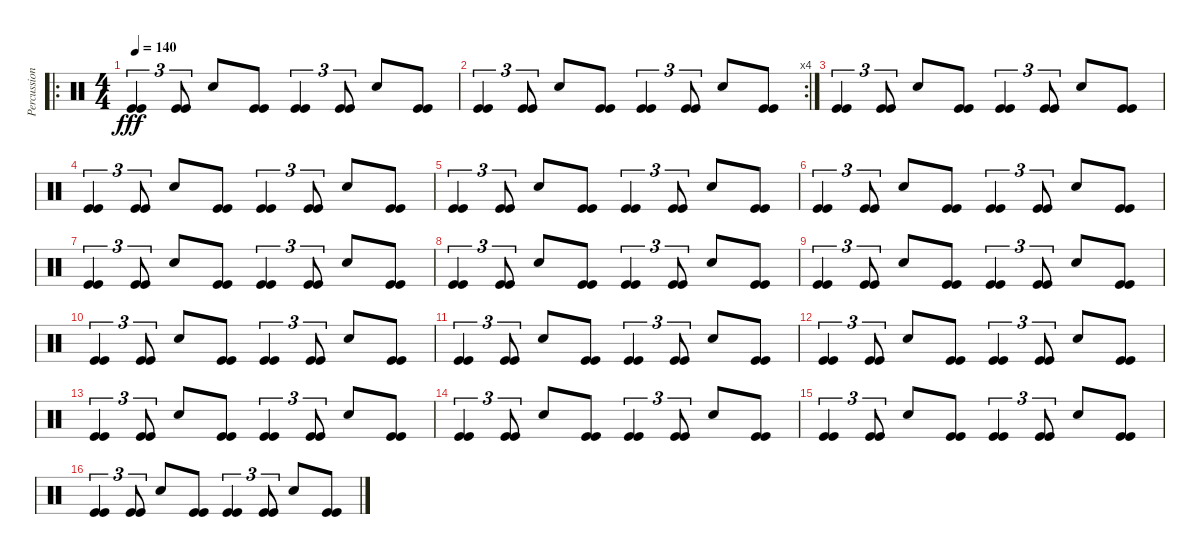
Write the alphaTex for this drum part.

\track ("Percussions" "Percussion") {instrument percussion}
\staff {score}
\articulation defaults
\ro
\ts (4 4)
\tempo 140
\clef neutral
\ks c
("Kick (hit)" "Kick (hit)").4{tu (3 2) dy fff} ("Kick (hit)" "Kick (hit)").8{tu (3 2)} "Snare (hit) 2".8 ("Kick (hit)" "Kick (hit)").8 ("Kick (hit)" "Kick (hit)").4{tu (3 2)} ("Kick (hit)" "Kick (hit)").8{tu (3 2)} "Snare (hit) 2".8 ("Kick (hit)" "Kick (hit)").8 |
\rc 4
("Kick (hit)" "Kick (hit)").4{tu (3 2)} ("Kick (hit)" "Kick (hit)").8{tu (3 2)} "Snare (hit) 2".8 ("Kick (hit)" "Kick (hit)").8 ("Kick (hit)" "Kick (hit)").4{tu (3 2)} ("Kick (hit)" "Kick (hit)").8{tu (3 2)} "Snare (hit) 2".8 ("Kick (hit)" "Kick (hit)").8 |
("Kick (hit)" "Kick (hit)").4{tu (3 2)} ("Kick (hit)" "Kick (hit)").8{tu (3 2)} "Snare (hit) 2".8 ("Kick (hit)" "Kick (hit)").8 ("Kick (hit)" "Kick (hit)").4{tu (3 2)} ("Kick (hit)" "Kick (hit)").8{tu (3 2)} "Snare (hit) 2".8 ("Kick (hit)" "Kick (hit)").8 |
("Kick (hit)" "Kick (hit)").4{tu (3 2)} ("Kick (hit)" "Kick (hit)").8{tu (3 2)} "Snare (hit) 2".8 ("Kick (hit)" "Kick (hit)").8 ("Kick (hit)" "Kick (hit)").4{tu (3 2)} ("Kick (hit)" "Kick (hit)").8{tu (3 2)} "Snare (hit) 2".8 ("Kick (hit)" "Kick (hit)").8 |
("Kick (hit)" "Kick (hit)").4{tu (3 2)} ("Kick (hit)" "Kick (hit)").8{tu (3 2)} "Snare (hit) 2".8 ("Kick (hit)" "Kick (hit)").8 ("Kick (hit)" "Kick (hit)").4{tu (3 2)} ("Kick (hit)" "Kick (hit)").8{tu (3 2)} "Snare (hit) 2".8 ("Kick (hit)" "Kick (hit)").8 |
("Kick (hit)" "Kick (hit)").4{tu (3 2)} ("Kick (hit)" "Kick (hit)").8{tu (3 2)} "Snare (hit) 2".8 ("Kick (hit)" "Kick (hit)").8 ("Kick (hit)" "Kick (hit)").4{tu (3 2)} ("Kick (hit)" "Kick (hit)").8{tu (3 2)} "Snare (hit) 2".8 ("Kick (hit)" "Kick (hit)").8 |
("Kick (hit)" "Kick (hit)").4{tu (3 2)} ("Kick (hit)" "Kick (hit)").8{tu (3 2)} "Snare (hit) 2".8 ("Kick (hit)" "Kick (hit)").8 ("Kick (hit)" "Kick (hit)").4{tu (3 2)} ("Kick (hit)" "Kick (hit)").8{tu (3 2)} "Snare (hit) 2".8 ("Kick (hit)" "Kick (hit)").8 |
("Kick (hit)" "Kick (hit)").4{tu (3 2)} ("Kick (hit)" "Kick (hit)").8{tu (3 2)} "Snare (hit) 2".8 ("Kick (hit)" "Kick (hit)").8 ("Kick (hit)" "Kick (hit)").4{tu (3 2)} ("Kick (hit)" "Kick (hit)").8{tu (3 2)} "Snare (hit) 2".8 ("Kick (hit)" "Kick (hit)").8 |
("Kick (hit)" "Kick (hit)").4{tu (3 2)} ("Kick (hit)" "Kick (hit)").8{tu (3 2)} "Snare (hit) 2".8 ("Kick (hit)" "Kick (hit)").8 ("Kick (hit)" "Kick (hit)").4{tu (3 2)} ("Kick (hit)" "Kick (hit)").8{tu (3 2)} "Snare (hit) 2".8 ("Kick (hit)" "Kick (hit)").8 |
("Kick (hit)" "Kick (hit)").4{tu (3 2)} ("Kick (hit)" "Kick (hit)").8{tu (3 2)} "Snare (hit) 2".8 ("Kick (hit)" "Kick (hit)").8 ("Kick (hit)" "Kick (hit)").4{tu (3 2)} ("Kick (hit)" "Kick (hit)").8{tu (3 2)} "Snare (hit) 2".8 ("Kick (hit)" "Kick (hit)").8 |
("Kick (hit)" "Kick (hit)").4{tu (3 2)} ("Kick (hit)" "Kick (hit)").8{tu (3 2)} "Snare (hit) 2".8 ("Kick (hit)" "Kick (hit)").8 ("Kick (hit)" "Kick (hit)").4{tu (3 2)} ("Kick (hit)" "Kick (hit)").8{tu (3 2)} "Snare (hit) 2".8 ("Kick (hit)" "Kick (hit)").8 |
("Kick (hit)" "Kick (hit)").4{tu (3 2)} ("Kick (hit)" "Kick (hit)").8{tu (3 2)} "Snare (hit) 2".8 ("Kick (hit)" "Kick (hit)").8 ("Kick (hit)" "Kick (hit)").4{tu (3 2)} ("Kick (hit)" "Kick (hit)").8{tu (3 2)} "Snare (hit) 2".8 ("Kick (hit)" "Kick (hit)").8 |
("Kick (hit)" "Kick (hit)").4{tu (3 2)} ("Kick (hit)" "Kick (hit)").8{tu (3 2)} "Snare (hit) 2".8 ("Kick (hit)" "Kick (hit)").8 ("Kick (hit)" "Kick (hit)").4{tu (3 2)} ("Kick (hit)" "Kick (hit)").8{tu (3 2)} "Snare (hit) 2".8 ("Kick (hit)" "Kick (hit)").8 |
("Kick (hit)" "Kick (hit)").4{tu (3 2)} ("Kick (hit)" "Kick (hit)").8{tu (3 2)} "Snare (hit) 2".8 ("Kick (hit)" "Kick (hit)").8 ("Kick (hit)" "Kick (hit)").4{tu (3 2)} ("Kick (hit)" "Kick (hit)").8{tu (3 2)} "Snare (hit) 2".8 ("Kick (hit)" "Kick (hit)").8 |
("Kick (hit)" "Kick (hit)").4{tu (3 2)} ("Kick (hit)" "Kick (hit)").8{tu (3 2)} "Snare (hit) 2".8 ("Kick (hit)" "Kick (hit)").8 ("Kick (hit)" "Kick (hit)").4{tu (3 2)} ("Kick (hit)" "Kick (hit)").8{tu (3 2)} "Snare (hit) 2".8 ("Kick (hit)" "Kick (hit)").8 |
("Kick (hit)" "Kick (hit)").4{tu (3 2)} ("Kick (hit)" "Kick (hit)").8{tu (3 2)} "Snare (hit) 2".8 ("Kick (hit)" "Kick (hit)").8 ("Kick (hit)" "Kick (hit)").4{tu (3 2)} ("Kick (hit)" "Kick (hit)").8{tu (3 2)} "Snare (hit) 2".8 ("Kick (hit)" "Kick (hit)").8
